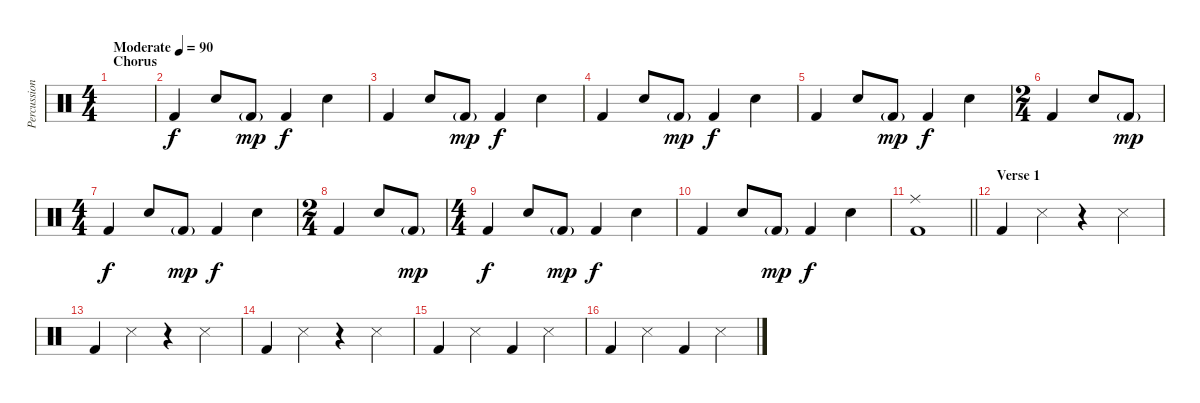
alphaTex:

\track ("Percussion" "Percussion") {instrument percussion}
\staff {score}
\articulation defaults
\ts (4 4)
\section ("" "Chorus")
\tempo (90 "Moderate")
\clef neutral
\ks c
|
"Kick (hit) 2".4 "Snare (hit) 2".8 "Kick (hit) 2"{g}.8{dy mp} "Kick (hit) 2".4{dy f} "Snare (hit) 2".4 |
"Kick (hit) 2".4 "Snare (hit) 2".8 "Kick (hit) 2"{g}.8{dy mp} "Kick (hit) 2".4{dy f} "Snare (hit) 2".4 |
"Kick (hit) 2".4 "Snare (hit) 2".8 "Kick (hit) 2"{g}.8{dy mp} "Kick (hit) 2".4{dy f} "Snare (hit) 2".4 |
"Kick (hit) 2".4 "Snare (hit) 2".8 "Kick (hit) 2"{g}.8{dy mp} "Kick (hit) 2".4{dy f} "Snare (hit) 2".4 |
\ts (2 4)
"Kick (hit) 2".4 "Snare (hit) 2".8 "Kick (hit) 2"{g}.8{dy mp} |
\ts (4 4)
"Kick (hit) 2".4{dy f} "Snare (hit) 2".8 "Kick (hit) 2"{g}.8{dy mp} "Kick (hit) 2".4{dy f} "Snare (hit) 2".4 |
\ts (2 4)
"Kick (hit) 2".4 "Snare (hit) 2".8 "Kick (hit) 2"{g}.8{dy mp} |
\ts (4 4)
"Kick (hit) 2".4{dy f} "Snare (hit) 2".8 "Kick (hit) 2"{g}.8{dy mp} "Kick (hit) 2".4{dy f} "Snare (hit) 2".4 |
"Kick (hit) 2".4 "Snare (hit) 2".8 "Kick (hit) 2"{g}.8{dy mp} "Kick (hit) 2".4{dy f} "Snare (hit) 2".4 |
\barLineRight lightlight
("Ride (middle)" "Kick (hit) 2").1 |
\section ("" "Verse 1")
"Kick (hit) 2".4 "Snare (side stick) 3".4 r.4 "Snare (side stick) 3".4 |
"Kick (hit) 2".4 "Snare (side stick) 3".4 r.4 "Snare (side stick) 3".4 |
"Kick (hit) 2".4 "Snare (side stick) 3".4 r.4 "Snare (side stick) 3".4 |
"Kick (hit) 2".4 "Snare (side stick) 3".4 "Kick (hit) 2".4 "Snare (side stick) 3".4 |
"Kick (hit) 2".4 "Snare (side stick) 3".4 "Kick (hit) 2".4 "Snare (side stick) 3".4
